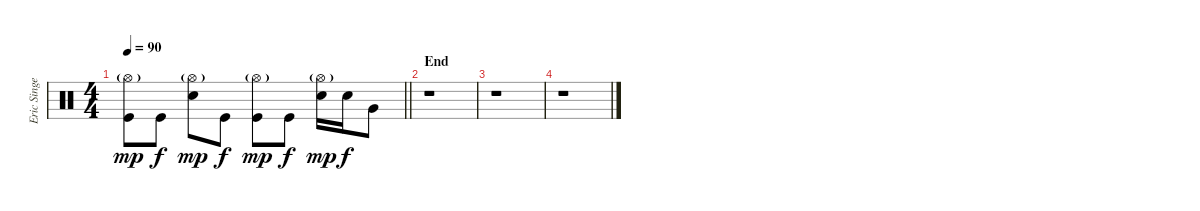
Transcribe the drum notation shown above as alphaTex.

\track ("Eric Singer (Drums)" "Eric Singe") {instrument percussion}
\staff {score}
\articulation defaults
\ts (4 4)
\tempo 90
\clef neutral
\barLineRight lightlight
\ks c
("Hi-Hat (open)"{g} "Kick (hit)").8{dy mp} "Kick (hit)".8{dy f} ("Hi-Hat (open)"{g} "Snare (hit) 2").8{dy mp} "Kick (hit)".8{dy f} ("Hi-Hat (open)"{g} "Kick (hit)").8{dy mp} "Kick (hit)".8{dy f} ("Hi-Hat (open)"{g} "Snare (hit) 2").16{dy mp} "Snare (hit) 2".16{dy f} "Very Low Tom (hit)".8 |
\section ("" "End")
r.1 |
r.1 |
r.1
